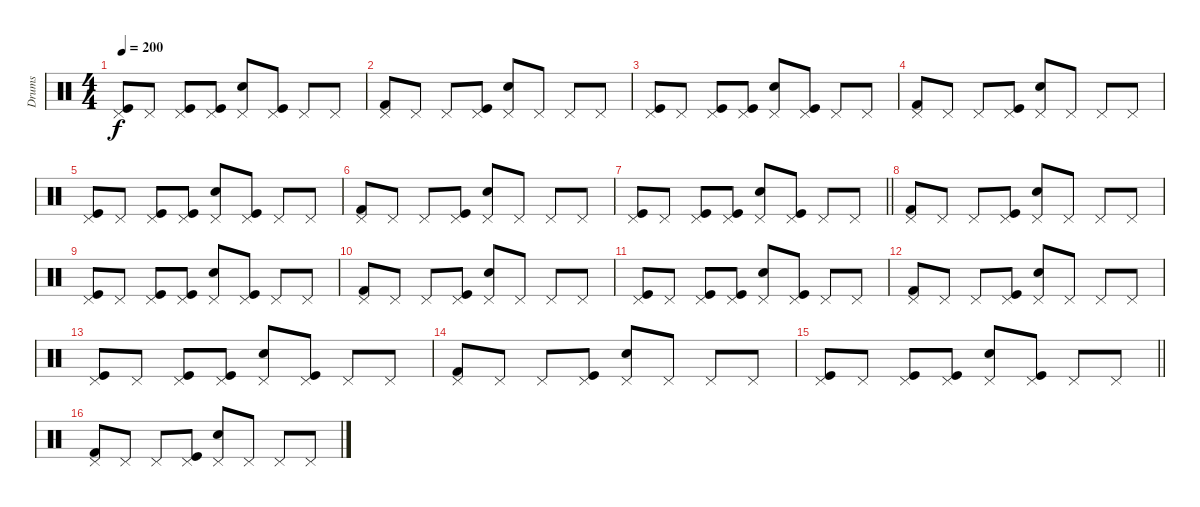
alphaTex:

\track ("Drums" "Drums") {instrument percussion}
\staff {score}
\articulation defaults
\ts (4 4)
\tempo 200
\clef neutral
\ks c
("Kick (hit)" "Pedal Hi-Hat (hit)").8{dy f} "Pedal Hi-Hat (hit)".8 ("Kick (hit)" "Pedal Hi-Hat (hit)").8 ("Kick (hit)" "Pedal Hi-Hat (hit)").8 ("Snare (hit) 2" "Pedal Hi-Hat (hit)").8 ("Kick (hit)" "Pedal Hi-Hat (hit)").8 "Pedal Hi-Hat (hit)".8 "Pedal Hi-Hat (hit)".8 |
("Kick (hit) 2" "Pedal Hi-Hat (hit)").8 "Pedal Hi-Hat (hit)".8 "Pedal Hi-Hat (hit)".8 ("Kick (hit)" "Pedal Hi-Hat (hit)").8 ("Snare (hit) 2" "Pedal Hi-Hat (hit)").8 "Pedal Hi-Hat (hit)".8 "Pedal Hi-Hat (hit)".8 "Pedal Hi-Hat (hit)".8 |
("Kick (hit)" "Pedal Hi-Hat (hit)").8 "Pedal Hi-Hat (hit)".8 ("Kick (hit)" "Pedal Hi-Hat (hit)").8 ("Kick (hit)" "Pedal Hi-Hat (hit)").8 ("Snare (hit) 2" "Pedal Hi-Hat (hit)").8 ("Kick (hit)" "Pedal Hi-Hat (hit)").8 "Pedal Hi-Hat (hit)".8 "Pedal Hi-Hat (hit)".8 |
("Kick (hit) 2" "Pedal Hi-Hat (hit)").8 "Pedal Hi-Hat (hit)".8 "Pedal Hi-Hat (hit)".8 ("Kick (hit)" "Pedal Hi-Hat (hit)").8 ("Snare (hit) 2" "Pedal Hi-Hat (hit)").8 "Pedal Hi-Hat (hit)".8 "Pedal Hi-Hat (hit)".8 "Pedal Hi-Hat (hit)".8 |
("Kick (hit)" "Pedal Hi-Hat (hit)").8 "Pedal Hi-Hat (hit)".8 ("Kick (hit)" "Pedal Hi-Hat (hit)").8 ("Kick (hit)" "Pedal Hi-Hat (hit)").8 ("Snare (hit) 2" "Pedal Hi-Hat (hit)").8 ("Kick (hit)" "Pedal Hi-Hat (hit)").8 "Pedal Hi-Hat (hit)".8 "Pedal Hi-Hat (hit)".8 |
("Kick (hit) 2" "Pedal Hi-Hat (hit)").8 "Pedal Hi-Hat (hit)".8 "Pedal Hi-Hat (hit)".8 ("Kick (hit)" "Pedal Hi-Hat (hit)").8 ("Snare (hit) 2" "Pedal Hi-Hat (hit)").8 "Pedal Hi-Hat (hit)".8 "Pedal Hi-Hat (hit)".8 "Pedal Hi-Hat (hit)".8 |
\barLineRight lightlight
("Kick (hit)" "Pedal Hi-Hat (hit)").8 "Pedal Hi-Hat (hit)".8 ("Kick (hit)" "Pedal Hi-Hat (hit)").8 ("Kick (hit)" "Pedal Hi-Hat (hit)").8 ("Snare (hit) 2" "Pedal Hi-Hat (hit)").8 ("Kick (hit)" "Pedal Hi-Hat (hit)").8 "Pedal Hi-Hat (hit)".8 "Pedal Hi-Hat (hit)".8 |
("Kick (hit) 2" "Pedal Hi-Hat (hit)").8 "Pedal Hi-Hat (hit)".8 "Pedal Hi-Hat (hit)".8 ("Kick (hit)" "Pedal Hi-Hat (hit)").8 ("Snare (hit) 2" "Pedal Hi-Hat (hit)").8 "Pedal Hi-Hat (hit)".8 "Pedal Hi-Hat (hit)".8 "Pedal Hi-Hat (hit)".8 |
("Kick (hit)" "Pedal Hi-Hat (hit)").8 "Pedal Hi-Hat (hit)".8 ("Kick (hit)" "Pedal Hi-Hat (hit)").8 ("Kick (hit)" "Pedal Hi-Hat (hit)").8 ("Snare (hit) 2" "Pedal Hi-Hat (hit)").8 ("Kick (hit)" "Pedal Hi-Hat (hit)").8 "Pedal Hi-Hat (hit)".8 "Pedal Hi-Hat (hit)".8 |
("Kick (hit) 2" "Pedal Hi-Hat (hit)").8 "Pedal Hi-Hat (hit)".8 "Pedal Hi-Hat (hit)".8 ("Kick (hit)" "Pedal Hi-Hat (hit)").8 ("Snare (hit) 2" "Pedal Hi-Hat (hit)").8 "Pedal Hi-Hat (hit)".8 "Pedal Hi-Hat (hit)".8 "Pedal Hi-Hat (hit)".8 |
("Kick (hit)" "Pedal Hi-Hat (hit)").8 "Pedal Hi-Hat (hit)".8 ("Kick (hit)" "Pedal Hi-Hat (hit)").8 ("Kick (hit)" "Pedal Hi-Hat (hit)").8 ("Snare (hit) 2" "Pedal Hi-Hat (hit)").8 ("Kick (hit)" "Pedal Hi-Hat (hit)").8 "Pedal Hi-Hat (hit)".8 "Pedal Hi-Hat (hit)".8 |
("Kick (hit) 2" "Pedal Hi-Hat (hit)").8 "Pedal Hi-Hat (hit)".8 "Pedal Hi-Hat (hit)".8 ("Kick (hit)" "Pedal Hi-Hat (hit)").8 ("Snare (hit) 2" "Pedal Hi-Hat (hit)").8 "Pedal Hi-Hat (hit)".8 "Pedal Hi-Hat (hit)".8 "Pedal Hi-Hat (hit)".8 |
("Kick (hit)" "Pedal Hi-Hat (hit)").8 "Pedal Hi-Hat (hit)".8 ("Kick (hit)" "Pedal Hi-Hat (hit)").8 ("Kick (hit)" "Pedal Hi-Hat (hit)").8 ("Snare (hit) 2" "Pedal Hi-Hat (hit)").8 ("Kick (hit)" "Pedal Hi-Hat (hit)").8 "Pedal Hi-Hat (hit)".8 "Pedal Hi-Hat (hit)".8 |
("Kick (hit) 2" "Pedal Hi-Hat (hit)").8 "Pedal Hi-Hat (hit)".8 "Pedal Hi-Hat (hit)".8 ("Kick (hit)" "Pedal Hi-Hat (hit)").8 ("Snare (hit) 2" "Pedal Hi-Hat (hit)").8 "Pedal Hi-Hat (hit)".8 "Pedal Hi-Hat (hit)".8 "Pedal Hi-Hat (hit)".8 |
\barLineRight lightlight
("Kick (hit)" "Pedal Hi-Hat (hit)").8 "Pedal Hi-Hat (hit)".8 ("Kick (hit)" "Pedal Hi-Hat (hit)").8 ("Kick (hit)" "Pedal Hi-Hat (hit)").8 ("Snare (hit) 2" "Pedal Hi-Hat (hit)").8 ("Kick (hit)" "Pedal Hi-Hat (hit)").8 "Pedal Hi-Hat (hit)".8 "Pedal Hi-Hat (hit)".8 |
("Kick (hit) 2" "Pedal Hi-Hat (hit)").8 "Pedal Hi-Hat (hit)".8 "Pedal Hi-Hat (hit)".8 ("Kick (hit)" "Pedal Hi-Hat (hit)").8 ("Snare (hit) 2" "Pedal Hi-Hat (hit)").8 "Pedal Hi-Hat (hit)".8 "Pedal Hi-Hat (hit)".8 "Pedal Hi-Hat (hit)".8
